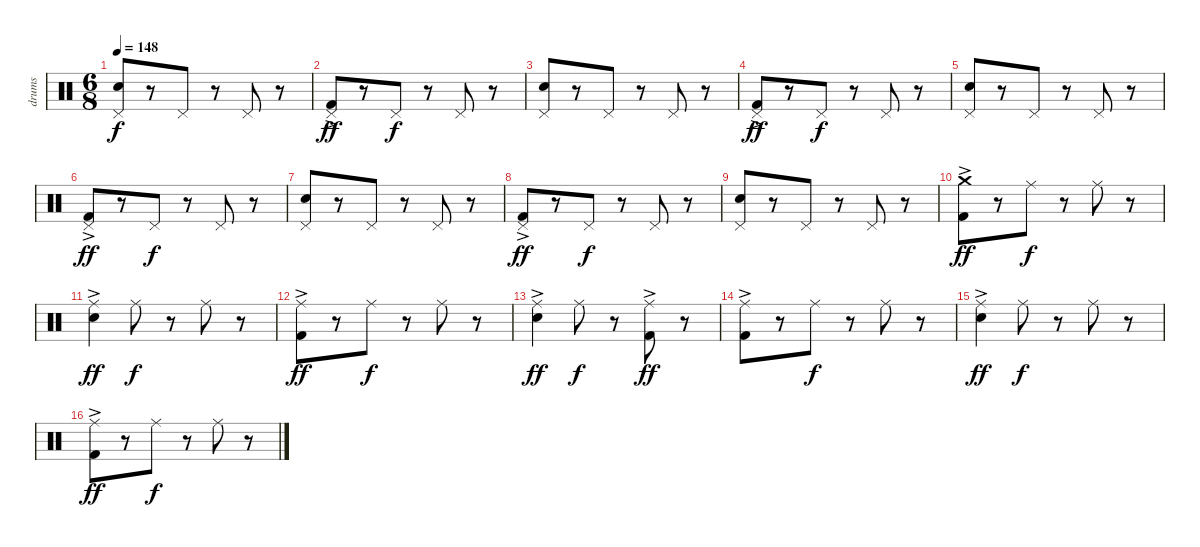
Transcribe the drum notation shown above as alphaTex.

\track ("drums" "drums") {instrument percussion}
\staff {score}
\articulation defaults
\ts (6 8)
\tempo 148
\clef neutral
\ks c
("Pedal Hi-Hat (hit)" "Electric Snare (hit)").8{dy f} r.8 "Pedal Hi-Hat (hit)".8 r.8 "Pedal Hi-Hat (hit)".8 r.8 |
("Pedal Hi-Hat (hit)" "Kick (hit) 2"{ac}).8{dy ff} r.8 "Pedal Hi-Hat (hit)".8{dy f} r.8 "Pedal Hi-Hat (hit)".8 r.8 |
("Pedal Hi-Hat (hit)" "Electric Snare (hit)").8 r.8 "Pedal Hi-Hat (hit)".8 r.8 "Pedal Hi-Hat (hit)".8 r.8 |
("Pedal Hi-Hat (hit)" "Kick (hit) 2"{ac}).8{dy ff} r.8 "Pedal Hi-Hat (hit)".8{dy f} r.8 "Pedal Hi-Hat (hit)".8 r.8 |
("Pedal Hi-Hat (hit)" "Electric Snare (hit)").8 r.8 "Pedal Hi-Hat (hit)".8 r.8 "Pedal Hi-Hat (hit)".8 r.8 |
("Pedal Hi-Hat (hit)" "Kick (hit) 2"{ac}).8{dy ff} r.8 "Pedal Hi-Hat (hit)".8{dy f} r.8 "Pedal Hi-Hat (hit)".8 r.8 |
("Pedal Hi-Hat (hit)" "Electric Snare (hit)").8 r.8 "Pedal Hi-Hat (hit)".8 r.8 "Pedal Hi-Hat (hit)".8 r.8 |
("Pedal Hi-Hat (hit)" "Kick (hit) 2"{ac}).8{dy ff} r.8 "Pedal Hi-Hat (hit)".8{dy f} r.8 "Pedal Hi-Hat (hit)".8 r.8 |
("Pedal Hi-Hat (hit)" "Electric Snare (hit)").8 r.8 "Pedal Hi-Hat (hit)".8 r.8 "Pedal Hi-Hat (hit)".8 r.8 |
("Crash medium (hit)" "Kick (hit) 2"{ac}).8{dy ff} r.8 "Ride (middle)".8{dy f} r.8 "Ride (middle)".8 r.8 |
("Ride (middle)" "Electric Snare (hit)"{ac}).4{dy ff} "Ride (middle)".8{dy f} r.8 "Ride (middle)".8 r.8 |
("Ride (middle)" "Kick (hit) 2"{ac}).8{dy ff} r.8 "Ride (middle)".8{dy f} r.8 "Ride (middle)".8 r.8 |
("Ride (middle)" "Electric Snare (hit)"{ac}).4{dy ff} "Ride (middle)".8{dy f} r.8 ("Ride (middle)" "Kick (hit) 2"{ac}).8{dy ff} r.8 |
("Ride (middle)" "Kick (hit) 2"{ac}).8 r.8 "Ride (middle)".8{dy f} r.8 "Ride (middle)".8 r.8 |
("Ride (middle)" "Electric Snare (hit)"{ac}).4{dy ff} "Ride (middle)".8{dy f} r.8 "Ride (middle)".8 r.8 |
("Ride (middle)" "Kick (hit) 2"{ac}).8{dy ff} r.8 "Ride (middle)".8{dy f} r.8 "Ride (middle)".8 r.8
